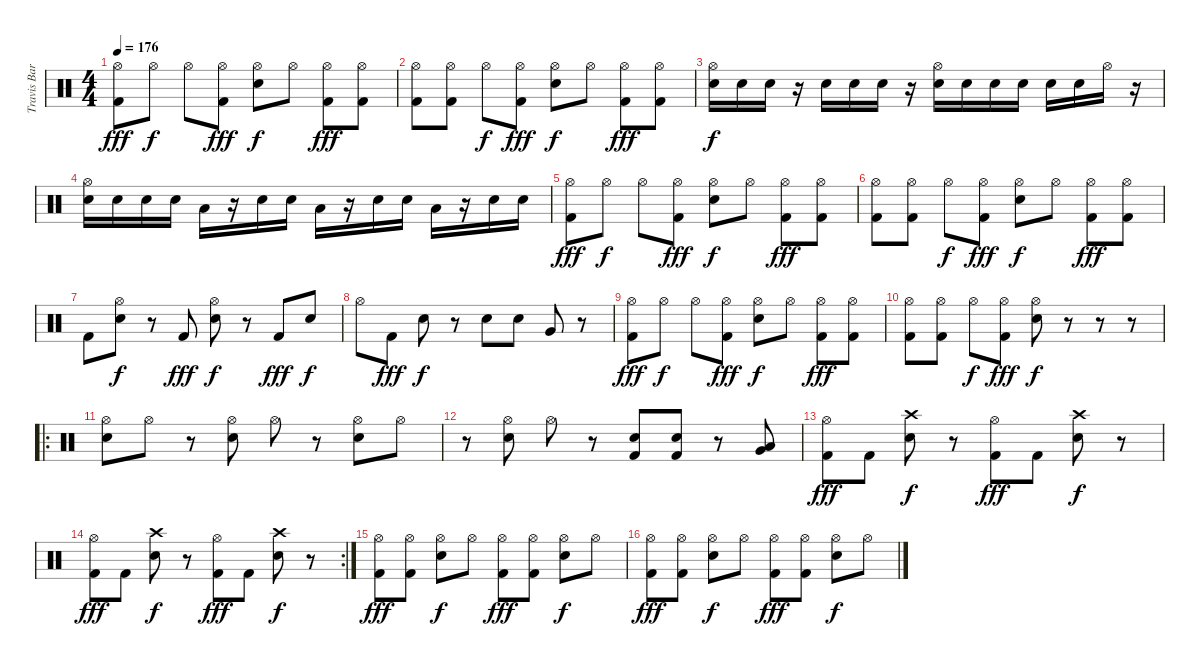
\track ("Travis Barker - Drums" "Travis Bar") {instrument percussion}
\staff {score}
\articulation defaults
\ts (4 4)
\tempo 176
\clef neutral
\ks c
("Kick (hit) 2" "Hi-Hat (open)").8{dy fff} "Hi-Hat (open)".8{dy f} "Hi-Hat (open)".8 ("Kick (hit) 2" "Hi-Hat (open)").8{dy fff} ("Snare (hit) 2" "Hi-Hat (open)").8{dy f} "Hi-Hat (open)".8 ("Kick (hit) 2" "Hi-Hat (open)").8{dy fff} ("Kick (hit) 2" "Hi-Hat (open)").8 |
("Kick (hit) 2" "Hi-Hat (open)").8 ("Kick (hit) 2" "Hi-Hat (open)").8 "Hi-Hat (open)".8{dy f} ("Kick (hit) 2" "Hi-Hat (open)").8{dy fff} ("Snare (hit) 2" "Hi-Hat (open)").8{dy f} "Hi-Hat (open)".8 ("Kick (hit) 2" "Hi-Hat (open)").8{dy fff} ("Kick (hit) 2" "Hi-Hat (open)").8 |
("Snare (hit) 2" "Hi-Hat (open)").16{dy f} "Snare (hit) 2".16 "Snare (hit) 2".16 r.16 "Snare (hit) 2".16 "Snare (hit) 2".16 "Snare (hit) 2".16 r.16 ("Snare (hit) 2" "Hi-Hat (open)").16 "Snare (hit) 2".16 "Snare (hit) 2".16 "Snare (hit) 2".16 "Snare (hit) 2".16 "Snare (hit) 2".16 "Hi-Hat (open)".16 r.16 |
("Snare (hit) 2" "Hi-Hat (open)").16 "Snare (hit) 2".16 "Snare (hit) 2".16 "Snare (hit) 2".16 "Low Tom (hit)".16 r.16 "Snare (hit) 2".16 "Snare (hit) 2".16 "Low Tom (hit)".16 r.16 "Snare (hit) 2".16 "Snare (hit) 2".16 "Low Tom (hit)".16 r.16 "Snare (hit) 2".16 "Snare (hit) 2".16 |
("Kick (hit) 2" "Hi-Hat (open)").8{dy fff} "Hi-Hat (open)".8{dy f} "Hi-Hat (open)".8 ("Kick (hit) 2" "Hi-Hat (open)").8{dy fff} ("Snare (hit) 2" "Hi-Hat (open)").8{dy f} "Hi-Hat (open)".8 ("Kick (hit) 2" "Hi-Hat (open)").8{dy fff} ("Kick (hit) 2" "Hi-Hat (open)").8 |
("Kick (hit) 2" "Hi-Hat (open)").8 ("Kick (hit) 2" "Hi-Hat (open)").8 "Hi-Hat (open)".8{dy f} ("Kick (hit) 2" "Hi-Hat (open)").8{dy fff} ("Snare (hit) 2" "Hi-Hat (open)").8{dy f} "Hi-Hat (open)".8 ("Kick (hit) 2" "Hi-Hat (open)").8{dy fff} ("Kick (hit) 2" "Hi-Hat (open)").8 |
"Kick (hit) 2".8 ("Snare (hit) 2" "Hi-Hat (open)").8{dy f} r.8 "Kick (hit) 2".8{dy fff} ("Snare (hit) 2" "Hi-Hat (open)").8{dy f} r.8 "Kick (hit) 2".8{dy fff} "Snare (hit) 2".8{dy f} |
"Hi-Hat (open)".8 "Kick (hit) 2".8{dy fff} "Snare (hit) 2".8{dy f} r.8 "Snare (hit) 2".8 "Snare (hit) 2".8 "Very Low Tom (hit)".8 r.8 |
("Kick (hit) 2" "Hi-Hat (open)").8{dy fff} "Hi-Hat (open)".8{dy f} "Hi-Hat (open)".8 ("Kick (hit) 2" "Hi-Hat (open)").8{dy fff} ("Snare (hit) 2" "Hi-Hat (open)").8{dy f} "Hi-Hat (open)".8 ("Kick (hit) 2" "Hi-Hat (open)").8{dy fff} ("Kick (hit) 2" "Hi-Hat (open)").8 |
("Kick (hit) 2" "Hi-Hat (open)").8 ("Kick (hit) 2" "Hi-Hat (open)").8 "Hi-Hat (open)".8{dy f} ("Kick (hit) 2" "Hi-Hat (open)").8{dy fff} ("Snare (hit) 2" "Hi-Hat (open)").8{dy f} r.8 r.8 r.8 |
\ro
("Snare (hit) 2" "Hi-Hat (open)").8 "Hi-Hat (open)".8 r.8 ("Snare (hit) 2" "Hi-Hat (open)").8 "Hi-Hat (open)".8 r.8 ("Snare (hit) 2" "Hi-Hat (open)").8 "Hi-Hat (open)".8 |
r.8 ("Snare (hit) 2" "Hi-Hat (open)").8 "Hi-Hat (open)".8 r.8 ("Kick (hit) 2" "Snare (hit) 2").8 ("Kick (hit) 2" "Snare (hit) 2").8 r.8 ("Very Low Tom (hit)" "Low Tom (hit)").8 |
("Kick (hit) 2" "Hi-Hat (open)").8{dy fff} "Kick (hit) 2".8 ("Snare (hit) 2" "Crash high (hit)").8{dy f} r.8 ("Kick (hit) 2" "Hi-Hat (open)").8{dy fff} "Kick (hit) 2".8 ("Snare (hit) 2" "Crash high (hit)").8{dy f} r.8 |
\rc 2
("Kick (hit) 2" "Hi-Hat (open)").8{dy fff} "Kick (hit) 2".8 ("Snare (hit) 2" "Crash high (hit)").8{dy f} r.8 ("Kick (hit) 2" "Hi-Hat (open)").8{dy fff} "Kick (hit) 2".8 ("Snare (hit) 2" "Crash high (hit)").8{dy f} r.8 |
("Kick (hit) 2" "Hi-Hat (open)").8{dy fff} ("Kick (hit) 2" "Hi-Hat (open)").8 ("Snare (hit) 2" "Hi-Hat (open)").8{dy f} "Hi-Hat (open)".8 ("Kick (hit) 2" "Hi-Hat (open)").8{dy fff} ("Kick (hit) 2" "Hi-Hat (open)").8 ("Snare (hit) 2" "Hi-Hat (open)").8{dy f} "Hi-Hat (open)".8 |
("Kick (hit) 2" "Hi-Hat (open)").8{dy fff} ("Kick (hit) 2" "Hi-Hat (open)").8 ("Snare (hit) 2" "Hi-Hat (open)").8{dy f} "Hi-Hat (open)".8 ("Kick (hit) 2" "Hi-Hat (open)").8{dy fff} ("Kick (hit) 2" "Hi-Hat (open)").8 ("Snare (hit) 2" "Hi-Hat (open)").8{dy f} "Hi-Hat (open)".8
